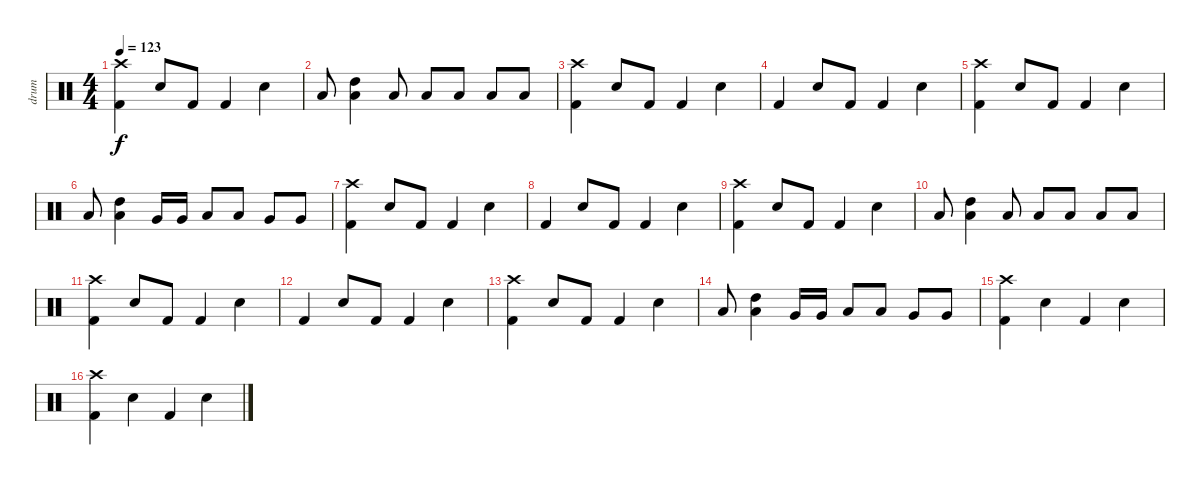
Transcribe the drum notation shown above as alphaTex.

\track ("drum" "drum") {instrument percussion}
\staff {score}
\articulation defaults
\ts (4 4)
\tempo 123
\clef neutral
\ks c
("Kick (hit) 2" "Crash high (hit)").4{dy f} "Snare (hit) 2".8 "Kick (hit) 2".8 "Kick (hit) 2".4 "Snare (hit) 2".4 |
"Low Tom (hit)".8 ("Low Tom (hit)" "High Tom (hit)").4 "Low Tom (hit)".8 "Low Tom (hit)".8 "Low Tom (hit)".8 "Low Tom (hit)".8 "Low Tom (hit)".8 |
("Kick (hit) 2" "Crash high (hit)").4 "Snare (hit) 2".8 "Kick (hit) 2".8 "Kick (hit) 2".4 "Snare (hit) 2".4 |
"Kick (hit) 2".4 "Snare (hit) 2".8 "Kick (hit) 2".8 "Kick (hit) 2".4 "Snare (hit) 2".4 |
("Kick (hit) 2" "Crash high (hit)").4 "Snare (hit) 2".8 "Kick (hit) 2".8 "Kick (hit) 2".4 "Snare (hit) 2".4 |
"Low Tom (hit)".8 ("Low Tom (hit)" "High Tom (hit)").4 "Very Low Tom (hit)".16 "Very Low Tom (hit)".16 "Low Tom (hit)".8 "Low Tom (hit)".8 "Very Low Tom (hit)".8 "Very Low Tom (hit)".8 |
("Kick (hit) 2" "Crash high (hit)").4 "Snare (hit) 2".8 "Kick (hit) 2".8 "Kick (hit) 2".4 "Snare (hit) 2".4 |
"Kick (hit) 2".4 "Snare (hit) 2".8 "Kick (hit) 2".8 "Kick (hit) 2".4 "Snare (hit) 2".4 |
("Kick (hit) 2" "Crash high (hit)").4 "Snare (hit) 2".8 "Kick (hit) 2".8 "Kick (hit) 2".4 "Snare (hit) 2".4 |
"Low Tom (hit)".8 ("Low Tom (hit)" "High Tom (hit)").4 "Low Tom (hit)".8 "Low Tom (hit)".8 "Low Tom (hit)".8 "Low Tom (hit)".8 "Low Tom (hit)".8 |
("Kick (hit) 2" "Crash high (hit)").4 "Snare (hit) 2".8 "Kick (hit) 2".8 "Kick (hit) 2".4 "Snare (hit) 2".4 |
"Kick (hit) 2".4 "Snare (hit) 2".8 "Kick (hit) 2".8 "Kick (hit) 2".4 "Snare (hit) 2".4 |
("Kick (hit) 2" "Crash high (hit)").4 "Snare (hit) 2".8 "Kick (hit) 2".8 "Kick (hit) 2".4 "Snare (hit) 2".4 |
"Low Tom (hit)".8 ("Low Tom (hit)" "High Tom (hit)").4 "Very Low Tom (hit)".16 "Very Low Tom (hit)".16 "Low Tom (hit)".8 "Low Tom (hit)".8 "Very Low Tom (hit)".8 "Very Low Tom (hit)".8 |
("Kick (hit) 2" "Crash high (hit)").4 "Snare (hit) 2".4 "Kick (hit) 2".4 "Snare (hit) 2".4 |
("Kick (hit) 2" "Crash high (hit)").4 "Snare (hit) 2".4 "Kick (hit) 2".4 "Snare (hit) 2".4
